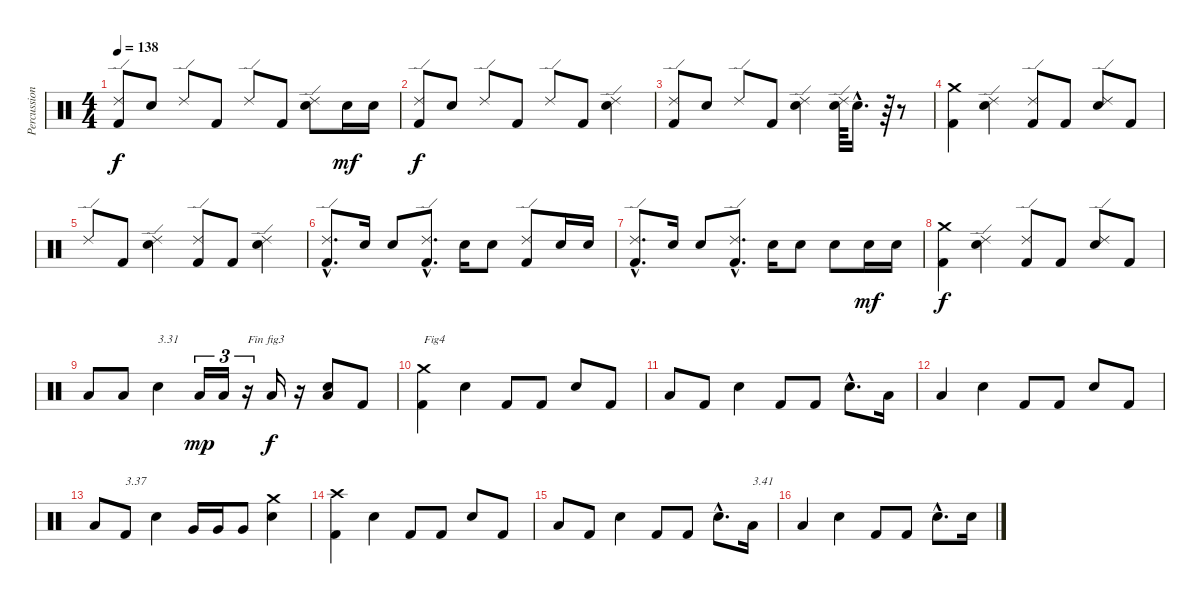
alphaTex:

\track ("Percussions" "Percussion") {instrument percussion}
\staff {score}
\articulation defaults
\ts (4 4)
\tempo 138
\clef neutral
\ks c
("Kick (hit) 2" "Ride (edge) 2").8{dy f} "Electric Snare (hit)".8 "Ride (edge) 2".8 "Kick (hit) 2".8 "Ride (edge) 2".8 "Kick (hit) 2".8 ("Electric Snare (hit)" "Ride (edge) 2").8 "Electric Snare (hit)".16{dy mf} "Electric Snare (hit)".16 |
("Kick (hit) 2" "Ride (edge) 2").8{dy f} "Electric Snare (hit)".8 "Ride (edge) 2".8 "Kick (hit) 2".8 "Ride (edge) 2".8 "Kick (hit) 2".8 ("Electric Snare (hit)" "Ride (edge) 2").4 |
("Kick (hit) 2" "Ride (edge) 2").8 "Electric Snare (hit)".8 "Ride (edge) 2".8 "Kick (hit) 2".8 ("Electric Snare (hit)" "Ride (edge) 2").4 ("Electric Snare (hit)" "Ride (edge) 2").64 "Electric Snare (hit)"{hac}.16{d} r.64 r.8 |
("Kick (hit) 2" "Crash medium (hit)").4 ("Electric Snare (hit)" "Ride (edge) 2").4 ("Kick (hit) 2" "Ride (edge) 2").8 "Kick (hit) 2".8 ("Electric Snare (hit)" "Ride (edge) 2").8 "Kick (hit) 2".8 |
"Ride (edge) 2".8 "Kick (hit) 2".8 ("Electric Snare (hit)" "Ride (edge) 2").4 ("Kick (hit) 2" "Ride (edge) 2").8 "Kick (hit) 2".8 ("Electric Snare (hit)" "Ride (edge) 2").4 |
("Kick (hit) 2"{hac} "Ride (edge) 2"{hac}).8{d} "Electric Snare (hit)".16 "Electric Snare (hit)".8 ("Kick (hit) 2"{hac} "Ride (edge) 2"{hac}).8{d} "Electric Snare (hit)".16 "Electric Snare (hit)".8 ("Kick (hit) 2" "Ride (edge) 2").8 "Electric Snare (hit)".16 "Electric Snare (hit)".16 |
("Kick (hit) 2"{hac} "Ride (edge) 2"{hac}).8{d} "Electric Snare (hit)".16 "Electric Snare (hit)".8 ("Kick (hit) 2"{hac} "Ride (edge) 2"{hac}).8{d} "Electric Snare (hit)".16 "Electric Snare (hit)".8 "Electric Snare (hit)".8 "Electric Snare (hit)".16{dy mf} "Electric Snare (hit)".16 |
("Kick (hit) 2" "Crash medium (hit)").4{dy f} ("Electric Snare (hit)" "Ride (edge) 2").4 ("Kick (hit) 2" "Ride (edge) 2").8 "Kick (hit) 2".8 ("Electric Snare (hit)" "Ride (edge) 2").8 "Kick (hit) 2".8 |
"Low Floor Tom (hit)".8 "Low Floor Tom (hit)".8 "Electric Snare (hit)".4{txt "3.31"} "Low Floor Tom (hit)".16{tu (3 2) dy mp} "Low Floor Tom (hit)".16{tu (3 2)} r.16{tu (3 2) txt "Fin fig3"} "Low Floor Tom (hit)".16{dy f} r.16 ("Electric Snare (hit)" "Low Floor Tom (hit)").8 "Kick (hit) 2".8 |
("Kick (hit) 2" "Crash medium (hit)").4{txt "Fig4"} "Electric Snare (hit)".4 "Kick (hit) 2".8 "Kick (hit) 2".8 "Electric Snare (hit)".8 "Kick (hit) 2".8 |
"Low Floor Tom (hit)".8 "Kick (hit) 2".8 "Electric Snare (hit)".4 "Kick (hit) 2".8 "Kick (hit) 2".8 "Electric Snare (hit)"{hac}.8{d} "Low Tom (hit)".16 |
"Low Tom (hit)".4 "Electric Snare (hit)".4 "Kick (hit) 2".8 "Kick (hit) 2".8 "Electric Snare (hit)".8 "Kick (hit) 2".8 |
"Low Floor Tom (hit)".8 "Kick (hit) 2".8{txt "3.37"} "Electric Snare (hit)".4 "Very Low Tom (hit)".16 "Very Low Tom (hit)".16 "Very Low Tom (hit)".8 ("Electric Snare (hit)" "Crash medium (hit)").4 |
("Kick (hit) 2" "Crash high (hit)").4 "Electric Snare (hit)".4 "Kick (hit) 2".8 "Kick (hit) 2".8 "Electric Snare (hit)".8 "Kick (hit) 2".8 |
"Low Floor Tom (hit)".8 "Kick (hit) 2".8 "Electric Snare (hit)".4 "Kick (hit) 2".8 "Kick (hit) 2".8 "Electric Snare (hit)"{hac}.8{d} "Low Tom (hit)".16{txt "3.41"} |
"Low Tom (hit)".4 "Electric Snare (hit)".4 "Kick (hit) 2".8 "Kick (hit) 2".8 "Electric Snare (hit)"{hac}.8{d} "Electric Snare (hit)".16
